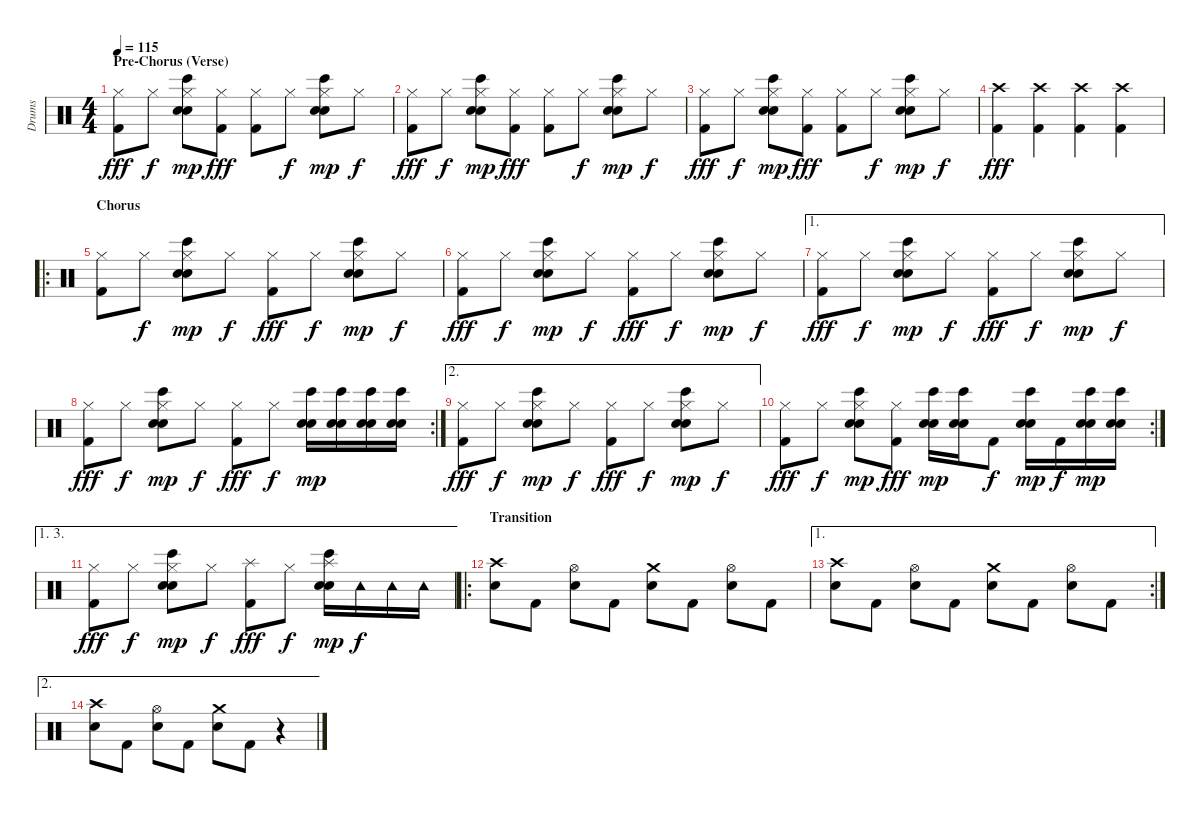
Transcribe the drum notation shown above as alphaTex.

\track ("Drums" "Drums") {instrument percussion}
\staff {score}
\articulation defaults
\ts (4 4)
\section ("" "Pre-Chorus (Verse)")
\tempo 115
\clef neutral
\ks c
("Hi-Hat (closed)" "Kick (hit) 2").8{dy fff} "Hi-Hat (closed)".8{dy f} ("Hi-Hat (closed)" "Bongo High (hit)" "Electric Snare (hit)" "Hand Clap (hit)").8{dy mp} ("Hi-Hat (closed)" "Kick (hit) 2").8{dy fff} ("Hi-Hat (closed)" "Kick (hit) 2").8 "Hi-Hat (closed)".8{dy f} ("Hi-Hat (closed)" "Bongo High (hit)" "Electric Snare (hit)" "Hand Clap (hit)").8{dy mp} "Hi-Hat (closed)".8{dy f} |
("Hi-Hat (closed)" "Kick (hit) 2").8{dy fff} "Hi-Hat (closed)".8{dy f} ("Hi-Hat (closed)" "Bongo High (hit)" "Electric Snare (hit)" "Hand Clap (hit)").8{dy mp} ("Hi-Hat (closed)" "Kick (hit) 2").8{dy fff} ("Hi-Hat (closed)" "Kick (hit) 2").8 "Hi-Hat (closed)".8{dy f} ("Hi-Hat (closed)" "Bongo High (hit)" "Electric Snare (hit)" "Hand Clap (hit)").8{dy mp} "Hi-Hat (closed)".8{dy f} |
("Hi-Hat (closed)" "Kick (hit) 2").8{dy fff} "Hi-Hat (closed)".8{dy f} ("Hi-Hat (closed)" "Bongo High (hit)" "Electric Snare (hit)" "Hand Clap (hit)").8{dy mp} ("Hi-Hat (closed)" "Kick (hit) 2").8{dy fff} ("Hi-Hat (closed)" "Kick (hit) 2").8 "Hi-Hat (closed)".8{dy f} ("Hi-Hat (closed)" "Bongo High (hit)" "Electric Snare (hit)" "Hand Clap (hit)").8{dy mp} "Hi-Hat (closed)".8{dy f} |
("Crash high (hit)" "Kick (hit) 2").4{dy fff} ("Crash high (hit)" "Kick (hit) 2").4 ("Crash high (hit)" "Kick (hit) 2").4 ("Crash high (hit)" "Kick (hit) 2").4 |
\ro
\section ("" "Chorus")
("Hi-Hat (closed)" "Kick (hit) 2").8 "Hi-Hat (closed)".8{dy f} ("Hi-Hat (closed)" "Bongo High (hit)" "Electric Snare (hit)" "Hand Clap (hit)").8{dy mp} "Hi-Hat (closed)".8{dy f} ("Hi-Hat (closed)" "Kick (hit) 2").8{dy fff} "Hi-Hat (closed)".8{dy f} ("Hi-Hat (closed)" "Bongo High (hit)" "Electric Snare (hit)" "Hand Clap (hit)").8{dy mp} "Hi-Hat (closed)".8{dy f} |
("Hi-Hat (closed)" "Kick (hit) 2").8{dy fff} "Hi-Hat (closed)".8{dy f} ("Hi-Hat (closed)" "Bongo High (hit)" "Electric Snare (hit)" "Hand Clap (hit)").8{dy mp} "Hi-Hat (closed)".8{dy f} ("Hi-Hat (closed)" "Kick (hit) 2").8{dy fff} "Hi-Hat (closed)".8{dy f} ("Hi-Hat (closed)" "Bongo High (hit)" "Electric Snare (hit)" "Hand Clap (hit)").8{dy mp} "Hi-Hat (closed)".8{dy f} |
\ae 1
("Hi-Hat (closed)" "Kick (hit) 2").8{dy fff} "Hi-Hat (closed)".8{dy f} ("Hi-Hat (closed)" "Bongo High (hit)" "Electric Snare (hit)" "Hand Clap (hit)").8{dy mp} "Hi-Hat (closed)".8{dy f} ("Hi-Hat (closed)" "Kick (hit) 2").8{dy fff} "Hi-Hat (closed)".8{dy f} ("Hi-Hat (closed)" "Bongo High (hit)" "Electric Snare (hit)" "Hand Clap (hit)").8{dy mp} "Hi-Hat (closed)".8{dy f} |
\rc 2
("Hi-Hat (closed)" "Kick (hit) 2").8{dy fff} "Hi-Hat (closed)".8{dy f} ("Hi-Hat (closed)" "Bongo High (hit)" "Electric Snare (hit)" "Hand Clap (hit)").8{dy mp} "Hi-Hat (closed)".8{dy f} ("Hi-Hat (closed)" "Kick (hit) 2").8{dy fff} "Hi-Hat (closed)".8{dy f} ("Bongo High (hit)" "Electric Snare (hit)" "Hand Clap (hit)").16{dy mp} ("Bongo High (hit)" "Electric Snare (hit)" "Hand Clap (hit)").16 ("Bongo High (hit)" "Electric Snare (hit)" "Hand Clap (hit)").16 ("Bongo High (hit)" "Electric Snare (hit)" "Hand Clap (hit)").16 |
\ae 2
("Hi-Hat (closed)" "Kick (hit) 2").8{dy fff} "Hi-Hat (closed)".8{dy f} ("Hi-Hat (closed)" "Bongo High (hit)" "Electric Snare (hit)" "Hand Clap (hit)").8{dy mp} "Hi-Hat (closed)".8{dy f} ("Hi-Hat (closed)" "Kick (hit) 2").8{dy fff} "Hi-Hat (closed)".8{dy f} ("Hi-Hat (closed)" "Bongo High (hit)" "Electric Snare (hit)" "Hand Clap (hit)").8{dy mp} "Hi-Hat (closed)".8{dy f} |
\rc 2
("Hi-Hat (closed)" "Kick (hit) 2").8{dy fff} "Hi-Hat (closed)".8{dy f} ("Hi-Hat (closed)" "Bongo High (hit)" "Electric Snare (hit)" "Hand Clap (hit)").8{dy mp} ("Hi-Hat (closed)" "Kick (hit) 2").8{dy fff} ("Bongo High (hit)" "Electric Snare (hit)" "Hand Clap (hit)").16{dy mp} ("Bongo High (hit)" "Electric Snare (hit)" "Hand Clap (hit)").16 "Kick (hit) 2".8{dy f} ("Bongo High (hit)" "Electric Snare (hit)" "Hand Clap (hit)").16{dy mp} "Kick (hit) 2".16{dy f} ("Bongo High (hit)" "Electric Snare (hit)" "Hand Clap (hit)").16{dy mp} ("Bongo High (hit)" "Electric Snare (hit)" "Hand Clap (hit)").16 |
\ae (1 3)
("Hi-Hat (closed)" "Kick (hit) 2").8{dy fff} "Hi-Hat (closed)".8{dy f} ("Hi-Hat (closed)" "Bongo High (hit)" "Electric Snare (hit)" "Hand Clap (hit)").8{dy mp} "Hi-Hat (closed)".8{dy f} ("Splash (hit)" "Kick (hit) 2").8{dy fff} "Hi-Hat (closed)".8{dy f} ("Splash (hit)" "Bongo High (hit)" "Electric Snare (hit)" "Hand Clap (hit)").16{dy mp} "Tambourine (hit)".16{dy f} "Tambourine (hit)".16 "Tambourine (hit)".16 |
\ro
\section ("" "Transition")
("Crash high (hit)" "Electric Snare (hit)").8 "Kick (hit) 2".8 ("Hi-Hat (open)" "Electric Snare (hit)").8 "Kick (hit) 2".8 ("Crash medium (hit)" "Electric Snare (hit)").8 "Kick (hit) 2".8 ("Hi-Hat (open)" "Electric Snare (hit)").8 "Kick (hit) 2".8 |
\ae 1
\rc 2
("Crash high (hit)" "Electric Snare (hit)").8 "Kick (hit) 2".8 ("Hi-Hat (open)" "Electric Snare (hit)").8 "Kick (hit) 2".8 ("Crash medium (hit)" "Electric Snare (hit)").8 "Kick (hit) 2".8 ("Hi-Hat (open)" "Electric Snare (hit)").8 "Kick (hit) 2".8 |
\ae 2
("Crash high (hit)" "Electric Snare (hit)").8 "Kick (hit) 2".8 ("Hi-Hat (open)" "Electric Snare (hit)").8 "Kick (hit) 2".8 ("Crash medium (hit)" "Electric Snare (hit)").8 "Kick (hit) 2".8 r.4
